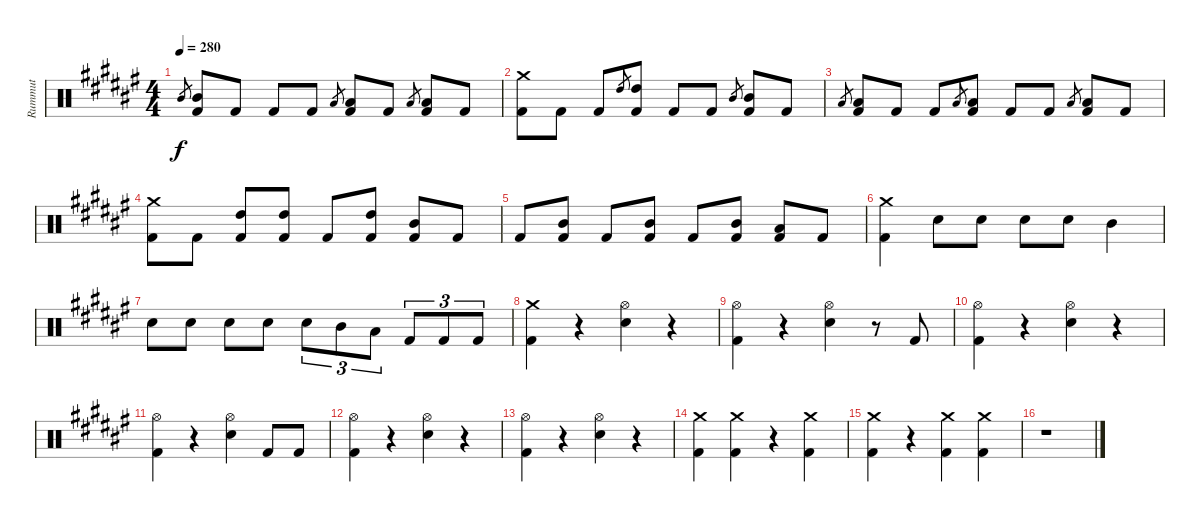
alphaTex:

\track ("Rummut" "Rummut") {instrument percussion}
\staff {score}
\articulation defaults
\ts (4 4)
\tempo 280
\clef neutral
\ks f# "Mid Tom (hit)".8{gr dy f}
("Mid Tom (hit)" "Kick (hit) 2").8 "Kick (hit) 2".8 "Kick (hit) 2".8 "Kick (hit) 2".8 "Low Tom (hit)".8{gr} ("Low Tom (hit)" "Kick (hit) 2").8 "Kick (hit) 2".8 "Low Tom (hit)".8{gr} ("Low Tom (hit)" "Kick (hit) 2").8 "Kick (hit) 2".8 |
("Crash medium (hit)" "Kick (hit) 2").8 "Kick (hit) 2".8 "Kick (hit) 2".8 "High Tom (hit)".8{gr} ("High Tom (hit)" "Kick (hit) 2").8 "Kick (hit) 2".8 "Kick (hit) 2".8 "Mid Tom (hit)".8{gr} ("Mid Tom (hit)" "Kick (hit) 2").8 "Kick (hit) 2".8 |
"Low Tom (hit)".8{gr} ("Low Tom (hit)" "Kick (hit) 2").8 "Kick (hit) 2".8 "Kick (hit) 2".8 "Low Tom (hit)".8{gr} ("Low Tom (hit)" "Kick (hit) 2").8 "Kick (hit) 2".8 "Kick (hit) 2".8 "Low Tom (hit)".8{gr} ("Low Tom (hit)" "Kick (hit) 2").8 "Kick (hit) 2".8 |
("Crash medium (hit)" "Kick (hit) 2").8 "Kick (hit) 2".8 ("High Tom (hit)" "Kick (hit) 2").8 ("High Tom (hit)" "Kick (hit) 2").8 "Kick (hit) 2".8 ("High Tom (hit)" "Kick (hit) 2").8 ("Mid Tom (hit)" "Kick (hit) 2").8 "Kick (hit) 2".8 |
"Kick (hit) 2".8 ("Mid Tom (hit)" "Kick (hit) 2").8 "Kick (hit) 2".8 ("Mid Tom (hit)" "Kick (hit) 2").8 "Kick (hit) 2".8 ("Mid Tom (hit)" "Kick (hit) 2").8 ("Low Tom (hit)" "Kick (hit) 2").8 "Kick (hit) 2".8 |
("Crash medium (hit)" "Kick (hit) 2").4 "Snare (hit) 2".8 "Snare (hit) 2".8 "Snare (hit) 2".8 "Snare (hit) 2".8 "Mid Tom (hit)".4 |
"Snare (hit) 2".8 "Snare (hit) 2".8 "Snare (hit) 2".8 "Snare (hit) 2".8 "Snare (hit) 2".8{tu (3 2)} "Mid Tom (hit)".8{tu (3 2)} "Low Tom (hit)".8{tu (3 2)} "Kick (hit) 2".8{tu (3 2)} "Kick (hit) 2".8{tu (3 2)} "Kick (hit) 2".8{tu (3 2)} |
("Crash medium (hit)" "Kick (hit) 2").4 r.4 ("Hi-Hat (open)" "Snare (hit) 2").4 r.4 |
("Hi-Hat (open)" "Kick (hit) 2").4 r.4 ("Hi-Hat (open)" "Snare (hit) 2").4 r.8 "Kick (hit) 2".8 |
("Hi-Hat (open)" "Kick (hit) 2").4 r.4 ("Hi-Hat (open)" "Snare (hit) 2").4 r.4 |
("Hi-Hat (open)" "Kick (hit) 2").4 r.4 ("Hi-Hat (open)" "Snare (hit) 2").4 "Kick (hit) 2".8 "Kick (hit) 2".8 |
("Hi-Hat (open)" "Kick (hit) 2").4 r.4 ("Hi-Hat (open)" "Snare (hit) 2").4 r.4 |
("Hi-Hat (open)" "Kick (hit) 2").4 r.4 ("Hi-Hat (open)" "Snare (hit) 2").4 r.4 |
("Crash medium (hit)" "Kick (hit) 2").4 ("Crash medium (hit)" "Kick (hit) 2").4 r.4 ("Crash medium (hit)" "Kick (hit) 2").4 |
("Crash medium (hit)" "Kick (hit) 2").4 r.4 ("Crash medium (hit)" "Kick (hit) 2").4 ("Crash medium (hit)" "Kick (hit) 2").4 |
r.1
